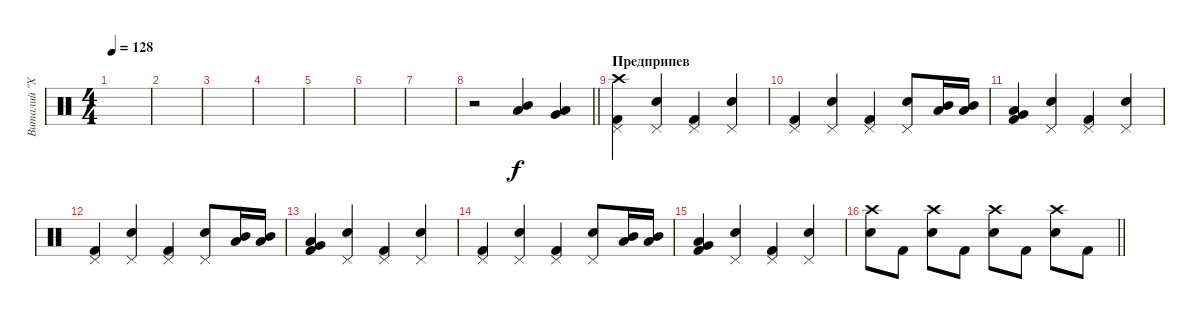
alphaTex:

\track ("Виталий \"Хамер\" Лядов" "Виталий \"Х") {instrument percussion}
\staff {score}
\articulation defaults
\ts (4 4)
\tempo 128
\clef neutral
\ks c
|
|
|
|
|
|
|
\barLineRight lightlight
r.2 ("Mid Tom (hit)" "Low Tom (hit)").4 ("Low Tom (hit)" "Very Low Tom (hit)").4 |
\section ("" "Предприпев")
("Kick (hit) 2" "Pedal Hi-Hat (hit)" "Crash high (hit)").4 ("Electric Snare (hit)" "Pedal Hi-Hat (hit)").4 ("Kick (hit) 2" "Pedal Hi-Hat (hit)").4 ("Electric Snare (hit)" "Pedal Hi-Hat (hit)").4 |
("Kick (hit) 2" "Pedal Hi-Hat (hit)").4 ("Electric Snare (hit)" "Pedal Hi-Hat (hit)").4 ("Kick (hit) 2" "Pedal Hi-Hat (hit)").4 ("Electric Snare (hit)" "Pedal Hi-Hat (hit)").8 ("Low Tom (hit)" "Mid Tom (hit)").16 ("Low Tom (hit)" "Mid Tom (hit)").16 |
("Kick (hit) 2" "Low Tom (hit)" "Very Low Tom (hit)").4 ("Electric Snare (hit)" "Pedal Hi-Hat (hit)").4 ("Kick (hit) 2" "Pedal Hi-Hat (hit)").4 ("Electric Snare (hit)" "Pedal Hi-Hat (hit)").4 |
("Kick (hit) 2" "Pedal Hi-Hat (hit)").4 ("Electric Snare (hit)" "Pedal Hi-Hat (hit)").4 ("Kick (hit) 2" "Pedal Hi-Hat (hit)").4 ("Electric Snare (hit)" "Pedal Hi-Hat (hit)").8 ("Low Tom (hit)" "Mid Tom (hit)").16 ("Low Tom (hit)" "Mid Tom (hit)").16 |
("Kick (hit) 2" "Low Tom (hit)" "Very Low Tom (hit)").4 ("Electric Snare (hit)" "Pedal Hi-Hat (hit)").4 ("Kick (hit) 2" "Pedal Hi-Hat (hit)").4 ("Electric Snare (hit)" "Pedal Hi-Hat (hit)").4 |
("Kick (hit) 2" "Pedal Hi-Hat (hit)").4 ("Electric Snare (hit)" "Pedal Hi-Hat (hit)").4 ("Kick (hit) 2" "Pedal Hi-Hat (hit)").4 ("Electric Snare (hit)" "Pedal Hi-Hat (hit)").8 ("Low Tom (hit)" "Mid Tom (hit)").16 ("Low Tom (hit)" "Mid Tom (hit)").16 |
("Kick (hit) 2" "Low Tom (hit)" "Very Low Tom (hit)").4 ("Electric Snare (hit)" "Pedal Hi-Hat (hit)").4 ("Kick (hit) 2" "Pedal Hi-Hat (hit)").4 ("Electric Snare (hit)" "Pedal Hi-Hat (hit)").4 |
\barLineRight lightlight
("Electric Snare (hit)" "Crash high (hit)").8 "Kick (hit) 2".8 ("Electric Snare (hit)" "Crash high (hit)").8 "Kick (hit) 2".8 ("Electric Snare (hit)" "Crash high (hit)").8 "Kick (hit) 2".8 ("Electric Snare (hit)" "Crash high (hit)").8 "Kick (hit) 2".8
